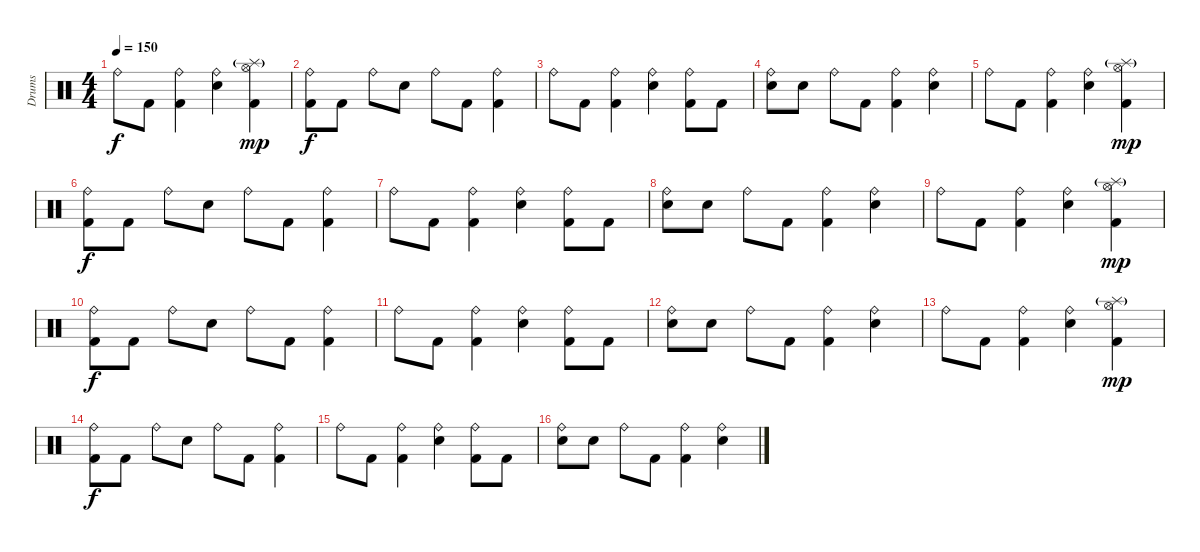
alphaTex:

\track ("Drums" "Drums") {instrument percussion}
\staff {score}
\articulation defaults
\ts (4 4)
\tempo 150
\clef neutral
\ks c "Ride (bell)".8{dy f} "Kick (hit) 2".8
("Ride (bell)" "Kick (hit) 2").4 ("Ride (bell)" "Electric Snare (hit)").4 ("Hi-Hat (open)" "Splash (hit)"{g} "Kick (hit) 2").4{dy mp} |
("Ride (bell)" "Kick (hit) 2").8{dy f} "Kick (hit) 2".8 "Ride (bell)".8 "Electric Snare (hit)".8 "Ride (bell)".8 "Kick (hit) 2".8 ("Ride (bell)" "Kick (hit) 2").4 |
"Ride (bell)".8 "Kick (hit) 2".8 ("Ride (bell)" "Kick (hit) 2").4 ("Ride (bell)" "Electric Snare (hit)").4 ("Ride (bell)" "Kick (hit) 2").8 "Kick (hit) 2".8 |
("Ride (bell)" "Electric Snare (hit)").8 "Electric Snare (hit)".8 "Ride (bell)".8 "Kick (hit) 2".8 ("Ride (bell)" "Kick (hit) 2").4 ("Ride (bell)" "Electric Snare (hit)").4 |
"Ride (bell)".8 "Kick (hit) 2".8 ("Ride (bell)" "Kick (hit) 2").4 ("Ride (bell)" "Electric Snare (hit)").4 ("Hi-Hat (open)" "Splash (hit)"{g} "Kick (hit) 2").4{dy mp} |
("Ride (bell)" "Kick (hit) 2").8{dy f} "Kick (hit) 2".8 "Ride (bell)".8 "Electric Snare (hit)".8 "Ride (bell)".8 "Kick (hit) 2".8 ("Ride (bell)" "Kick (hit) 2").4 |
"Ride (bell)".8 "Kick (hit) 2".8 ("Ride (bell)" "Kick (hit) 2").4 ("Ride (bell)" "Electric Snare (hit)").4 ("Ride (bell)" "Kick (hit) 2").8 "Kick (hit) 2".8 |
("Ride (bell)" "Electric Snare (hit)").8 "Electric Snare (hit)".8 "Ride (bell)".8 "Kick (hit) 2".8 ("Ride (bell)" "Kick (hit) 2").4 ("Ride (bell)" "Electric Snare (hit)").4 |
"Ride (bell)".8 "Kick (hit) 2".8 ("Ride (bell)" "Kick (hit) 2").4 ("Ride (bell)" "Electric Snare (hit)").4 ("Hi-Hat (open)" "Splash (hit)"{g} "Kick (hit) 2").4{dy mp} |
("Ride (bell)" "Kick (hit) 2").8{dy f} "Kick (hit) 2".8 "Ride (bell)".8 "Electric Snare (hit)".8 "Ride (bell)".8 "Kick (hit) 2".8 ("Ride (bell)" "Kick (hit) 2").4 |
"Ride (bell)".8 "Kick (hit) 2".8 ("Ride (bell)" "Kick (hit) 2").4 ("Ride (bell)" "Electric Snare (hit)").4 ("Ride (bell)" "Kick (hit) 2").8 "Kick (hit) 2".8 |
("Ride (bell)" "Electric Snare (hit)").8 "Electric Snare (hit)".8 "Ride (bell)".8 "Kick (hit) 2".8 ("Ride (bell)" "Kick (hit) 2").4 ("Ride (bell)" "Electric Snare (hit)").4 |
"Ride (bell)".8 "Kick (hit) 2".8 ("Ride (bell)" "Kick (hit) 2").4 ("Ride (bell)" "Electric Snare (hit)").4 ("Hi-Hat (open)" "Splash (hit)"{g} "Kick (hit) 2").4{dy mp} |
("Ride (bell)" "Kick (hit) 2").8{dy f} "Kick (hit) 2".8 "Ride (bell)".8 "Electric Snare (hit)".8 "Ride (bell)".8 "Kick (hit) 2".8 ("Ride (bell)" "Kick (hit) 2").4 |
"Ride (bell)".8 "Kick (hit) 2".8 ("Ride (bell)" "Kick (hit) 2").4 ("Ride (bell)" "Electric Snare (hit)").4 ("Ride (bell)" "Kick (hit) 2").8 "Kick (hit) 2".8 |
("Ride (bell)" "Electric Snare (hit)").8 "Electric Snare (hit)".8 "Ride (bell)".8 "Kick (hit) 2".8 ("Ride (bell)" "Kick (hit) 2").4 ("Ride (bell)" "Electric Snare (hit)").4
